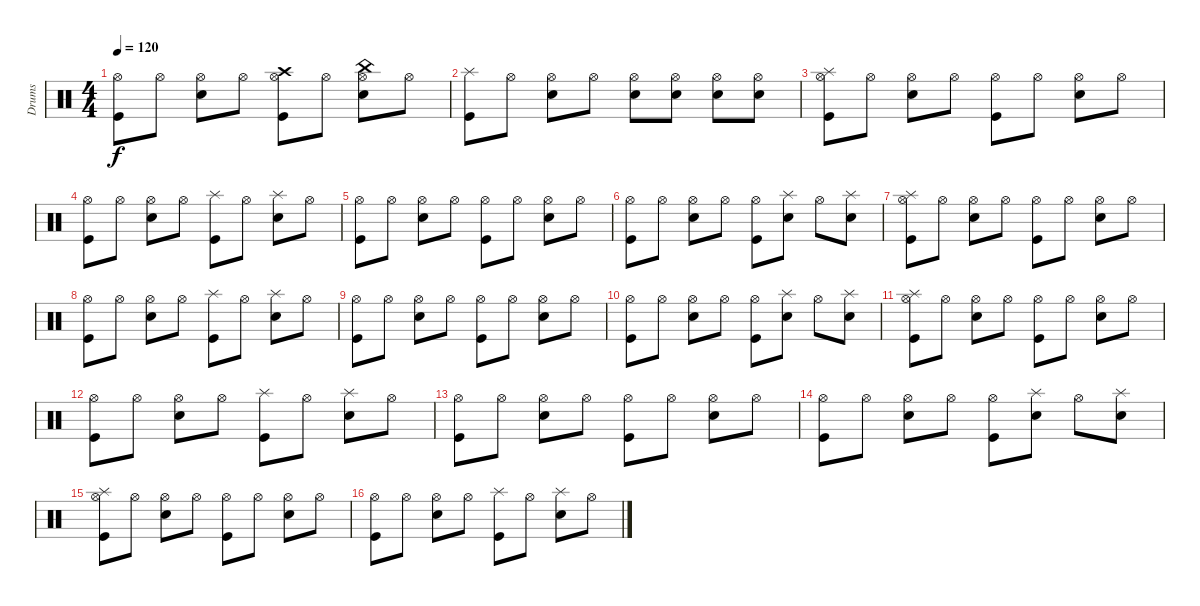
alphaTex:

\track ("Drums" "Drums") {instrument percussion}
\staff {score}
\articulation defaults
\ts (4 4)
\tempo 120
\clef neutral
\ks c
("Hi-Hat (open)" "Kick (hit)").8{dy f} "Hi-Hat (open)".8 ("Hi-Hat (open)" "Snare (hit) 2").8 "Hi-Hat (open)".8 ("Hi-Hat (open)" "Kick (hit)" "Crash high (hit)").8 "Hi-Hat (open)".8 ("Hi-Hat (open)" "Snare (hit) 2" "China (hit)").8 "Hi-Hat (open)".8 |
("Kick (hit)" "Splash (hit)").8 "Hi-Hat (open)".8 ("Hi-Hat (open)" "Snare (hit) 2").8 "Hi-Hat (open)".8 ("Hi-Hat (open)" "Snare (hit) 2").8 ("Hi-Hat (open)" "Snare (hit) 2").8 ("Hi-Hat (open)" "Snare (hit) 2").8 ("Hi-Hat (open)" "Snare (hit) 2").8 |
("Hi-Hat (open)" "Kick (hit)" "Splash (hit)").8 "Hi-Hat (open)".8 ("Hi-Hat (open)" "Snare (hit) 2").8 "Hi-Hat (open)".8 ("Hi-Hat (open)" "Kick (hit)").8 "Hi-Hat (open)".8 ("Hi-Hat (open)" "Snare (hit) 2").8 "Hi-Hat (open)".8 |
("Hi-Hat (open)" "Kick (hit)").8 "Hi-Hat (open)".8 ("Hi-Hat (open)" "Snare (hit) 2").8 "Hi-Hat (open)".8 ("Kick (hit)" "Splash (hit)").8 "Hi-Hat (open)".8 ("Snare (hit) 2" "Splash (hit)").8 "Hi-Hat (open)".8 |
("Hi-Hat (open)" "Kick (hit)").8 "Hi-Hat (open)".8 ("Hi-Hat (open)" "Snare (hit) 2").8 "Hi-Hat (open)".8 ("Hi-Hat (open)" "Kick (hit)").8 "Hi-Hat (open)".8 ("Hi-Hat (open)" "Snare (hit) 2").8 "Hi-Hat (open)".8 |
("Hi-Hat (open)" "Kick (hit)").8 "Hi-Hat (open)".8 ("Hi-Hat (open)" "Snare (hit) 2").8 "Hi-Hat (open)".8 ("Hi-Hat (open)" "Kick (hit)").8 ("Snare (hit) 2" "Splash (hit)").8 "Hi-Hat (open)".8 ("Snare (hit) 2" "Splash (hit)").8 |
("Hi-Hat (open)" "Kick (hit)" "Splash (hit)").8 "Hi-Hat (open)".8 ("Hi-Hat (open)" "Snare (hit) 2").8 "Hi-Hat (open)".8 ("Hi-Hat (open)" "Kick (hit)").8 "Hi-Hat (open)".8 ("Hi-Hat (open)" "Snare (hit) 2").8 "Hi-Hat (open)".8 |
("Hi-Hat (open)" "Kick (hit)").8 "Hi-Hat (open)".8 ("Hi-Hat (open)" "Snare (hit) 2").8 "Hi-Hat (open)".8 ("Kick (hit)" "Splash (hit)").8 "Hi-Hat (open)".8 ("Snare (hit) 2" "Splash (hit)").8 "Hi-Hat (open)".8 |
("Hi-Hat (open)" "Kick (hit)").8 "Hi-Hat (open)".8 ("Hi-Hat (open)" "Snare (hit) 2").8 "Hi-Hat (open)".8 ("Hi-Hat (open)" "Kick (hit)").8 "Hi-Hat (open)".8 ("Hi-Hat (open)" "Snare (hit) 2").8 "Hi-Hat (open)".8 |
("Hi-Hat (open)" "Kick (hit)").8 "Hi-Hat (open)".8 ("Hi-Hat (open)" "Snare (hit) 2").8 "Hi-Hat (open)".8 ("Hi-Hat (open)" "Kick (hit)").8 ("Snare (hit) 2" "Splash (hit)").8 "Hi-Hat (open)".8 ("Snare (hit) 2" "Splash (hit)").8 |
("Hi-Hat (open)" "Kick (hit)" "Splash (hit)").8 "Hi-Hat (open)".8 ("Hi-Hat (open)" "Snare (hit) 2").8 "Hi-Hat (open)".8 ("Hi-Hat (open)" "Kick (hit)").8 "Hi-Hat (open)".8 ("Hi-Hat (open)" "Snare (hit) 2").8 "Hi-Hat (open)".8 |
("Hi-Hat (open)" "Kick (hit)").8 "Hi-Hat (open)".8 ("Hi-Hat (open)" "Snare (hit) 2").8 "Hi-Hat (open)".8 ("Kick (hit)" "Splash (hit)").8 "Hi-Hat (open)".8 ("Snare (hit) 2" "Splash (hit)").8 "Hi-Hat (open)".8 |
("Hi-Hat (open)" "Kick (hit)").8 "Hi-Hat (open)".8 ("Hi-Hat (open)" "Snare (hit) 2").8 "Hi-Hat (open)".8 ("Hi-Hat (open)" "Kick (hit)").8 "Hi-Hat (open)".8 ("Hi-Hat (open)" "Snare (hit) 2").8 "Hi-Hat (open)".8 |
("Hi-Hat (open)" "Kick (hit)").8 "Hi-Hat (open)".8 ("Hi-Hat (open)" "Snare (hit) 2").8 "Hi-Hat (open)".8 ("Hi-Hat (open)" "Kick (hit)").8 ("Snare (hit) 2" "Splash (hit)").8 "Hi-Hat (open)".8 ("Snare (hit) 2" "Splash (hit)").8 |
("Hi-Hat (open)" "Kick (hit)" "Splash (hit)").8 "Hi-Hat (open)".8 ("Hi-Hat (open)" "Snare (hit) 2").8 "Hi-Hat (open)".8 ("Hi-Hat (open)" "Kick (hit)").8 "Hi-Hat (open)".8 ("Hi-Hat (open)" "Snare (hit) 2").8 "Hi-Hat (open)".8 |
("Hi-Hat (open)" "Kick (hit)").8 "Hi-Hat (open)".8 ("Hi-Hat (open)" "Snare (hit) 2").8 "Hi-Hat (open)".8 ("Kick (hit)" "Splash (hit)").8 "Hi-Hat (open)".8 ("Snare (hit) 2" "Splash (hit)").8 "Hi-Hat (open)".8
